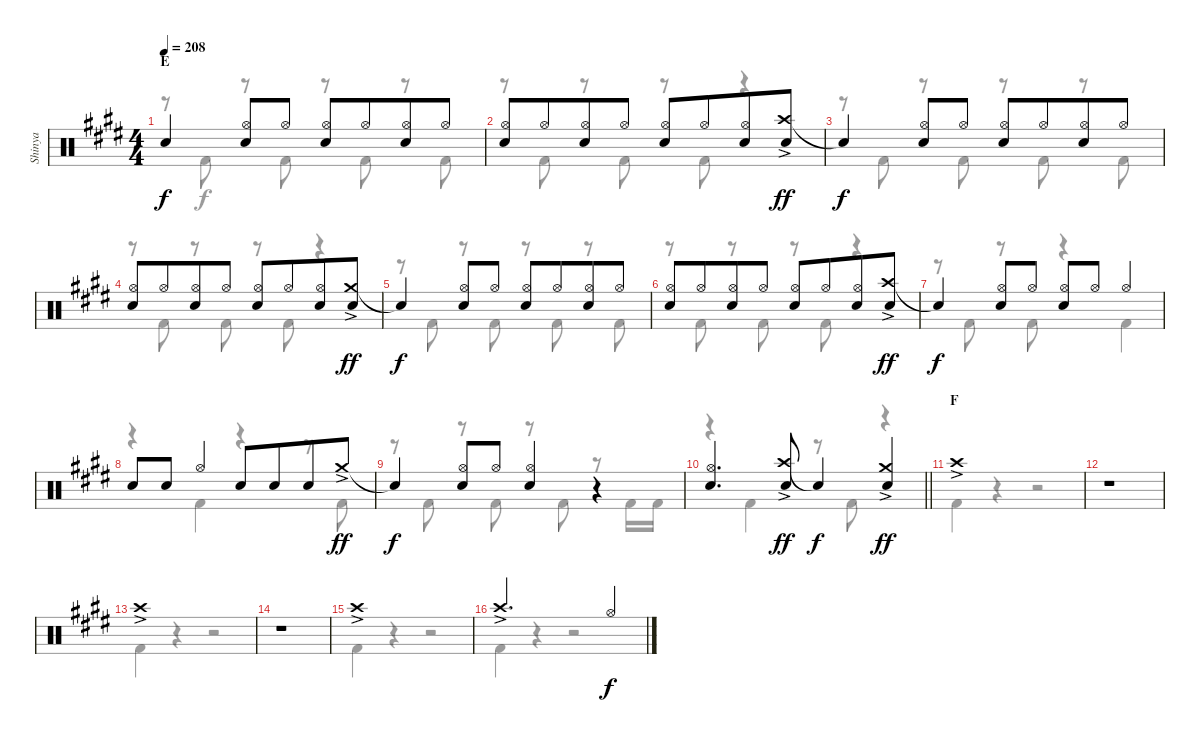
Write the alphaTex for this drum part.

\track ("Shinya" "Shinya") {instrument percussion}
\staff {score}
\articulation defaults
\voice
\ts (4 4)
\section ("" "E")
\tempo 208
\clef neutral
\ks c#minor "Snare (hit)"{t}.4{dy f}
("Hi-Hat (open)" "Snare (hit) 2").8 "Hi-Hat (open)".8 ("Hi-Hat (open)" "Snare (hit) 2").8 "Hi-Hat (open)".8{beam merge} ("Hi-Hat (open)" "Snare (hit) 2").8 "Hi-Hat (open)".8 |
("Hi-Hat (open)" "Snare (hit) 2").8 "Hi-Hat (open)".8{beam merge} ("Hi-Hat (open)" "Snare (hit) 2").8 "Hi-Hat (open)".8 ("Hi-Hat (open)" "Snare (hit) 2").8 "Hi-Hat (open)".8{beam merge} ("Hi-Hat (open)" "Snare (hit) 2").8 ("Crash high (hit)"{ac} "Snare (hit) 2").8{dy ff} |
"Snare (hit)"{t}.4{dy f} ("Hi-Hat (open)" "Snare (hit) 2").8 "Hi-Hat (open)".8 ("Hi-Hat (open)" "Snare (hit) 2").8 "Hi-Hat (open)".8{beam merge} ("Hi-Hat (open)" "Snare (hit) 2").8 "Hi-Hat (open)".8 |
("Hi-Hat (open)" "Snare (hit) 2").8 "Hi-Hat (open)".8{beam merge} ("Hi-Hat (open)" "Snare (hit) 2").8 "Hi-Hat (open)".8 ("Hi-Hat (open)" "Snare (hit) 2").8 "Hi-Hat (open)".8{beam merge} ("Hi-Hat (open)" "Snare (hit) 2").8 ("Crash medium (hit)"{ac} "Snare (hit) 2").8{dy ff} |
"Snare (hit)"{t}.4{dy f} ("Hi-Hat (open)" "Snare (hit) 2").8 "Hi-Hat (open)".8 ("Hi-Hat (open)" "Snare (hit) 2").8 "Hi-Hat (open)".8{beam merge} ("Hi-Hat (open)" "Snare (hit) 2").8 "Hi-Hat (open)".8 |
("Hi-Hat (open)" "Snare (hit) 2").8 "Hi-Hat (open)".8{beam merge} ("Hi-Hat (open)" "Snare (hit) 2").8 "Hi-Hat (open)".8 ("Hi-Hat (open)" "Snare (hit) 2").8 "Hi-Hat (open)".8{beam merge} ("Hi-Hat (open)" "Snare (hit) 2").8 ("Crash high (hit)"{ac} "Snare (hit) 2").8{dy ff} |
"Snare (hit)"{t}.4{dy f} ("Hi-Hat (open)" "Snare (hit) 2").8 "Hi-Hat (open)".8 ("Hi-Hat (open)" "Snare (hit) 2").8 "Hi-Hat (open)".8 "Hi-Hat (open)".4 |
"Snare (hit) 2".8 "Snare (hit) 2".8 "Hi-Hat (open)".4 "Snare (hit) 2".8 "Snare (hit) 2".8{beam merge} "Snare (hit) 2".8 "Crash medium (hit)"{ac}.8{dy ff} |
"Snare (hit)"{t}.4{dy f} ("Hi-Hat (open)" "Snare (hit) 2").8 "Hi-Hat (open)".8 ("Hi-Hat (open)" "Snare (hit) 2").4 r.4 |
\barLineRight lightlight
("Hi-Hat (open)" "Snare (hit) 2").4{d} ("Crash high (hit)"{ac} "Snare (hit) 2").8{dy ff} "Snare (hit)"{t}.4{dy f} ("Crash medium (hit)"{ac} "Snare (hit) 2").4{dy ff} |
\section ("" "F")
"Crash high (hit)"{ac}.1 |
r.1 |
"Crash high (hit)"{ac}.1 |
r.1 |
"Crash high (hit)"{ac}.1 |
"Crash high (hit)"{ac}.2{d} "Hi-Hat (open)".4{dy f}
\voice
\clef neutral
\ottava regular
\simile none
\ks c#minor
r.8{dy f} "Kick (hit) 2".8 r.8 "Kick (hit) 2".8 r.8 "Kick (hit) 2".8 r.8 "Kick (hit) 2".8 |
r.8 "Kick (hit) 2".8 r.8 "Kick (hit) 2".8 r.8 "Kick (hit) 2".8 r.4 |
r.8 "Kick (hit) 2".8 r.8 "Kick (hit) 2".8 r.8 "Kick (hit) 2".8 r.8 "Kick (hit) 2".8 |
r.8 "Kick (hit) 2".8 r.8 "Kick (hit) 2".8 r.8 "Kick (hit) 2".8 r.4 |
r.8 "Kick (hit) 2".8 r.8 "Kick (hit) 2".8 r.8 "Kick (hit) 2".8 r.8 "Kick (hit) 2".8 |
r.8 "Kick (hit) 2".8 r.8 "Kick (hit) 2".8 r.8 "Kick (hit) 2".8 r.4 |
r.8 "Kick (hit) 2".8 r.8 "Kick (hit) 2".8 r.4 "Kick (hit) 2".4 |
r.4 "Kick (hit) 2".4 r.4 r.8 "Kick (hit) 2".8 |
r.8 "Kick (hit) 2".8 r.8 "Kick (hit) 2".8 r.8 "Kick (hit) 2".8 r.8 "Kick (hit) 2".16 "Kick (hit) 2".16 |
\barLineRight lightlight
r.4 "Kick (hit) 2".4 r.8 "Kick (hit) 2".8 r.4 |
"Kick (hit) 2".4 r.4 r.2 |
r.1 |
"Kick (hit) 2".4 r.4 r.2 |
r.1 |
"Kick (hit) 2".4 r.4 r.2 |
"Kick (hit) 2".4 r.4 r.2
